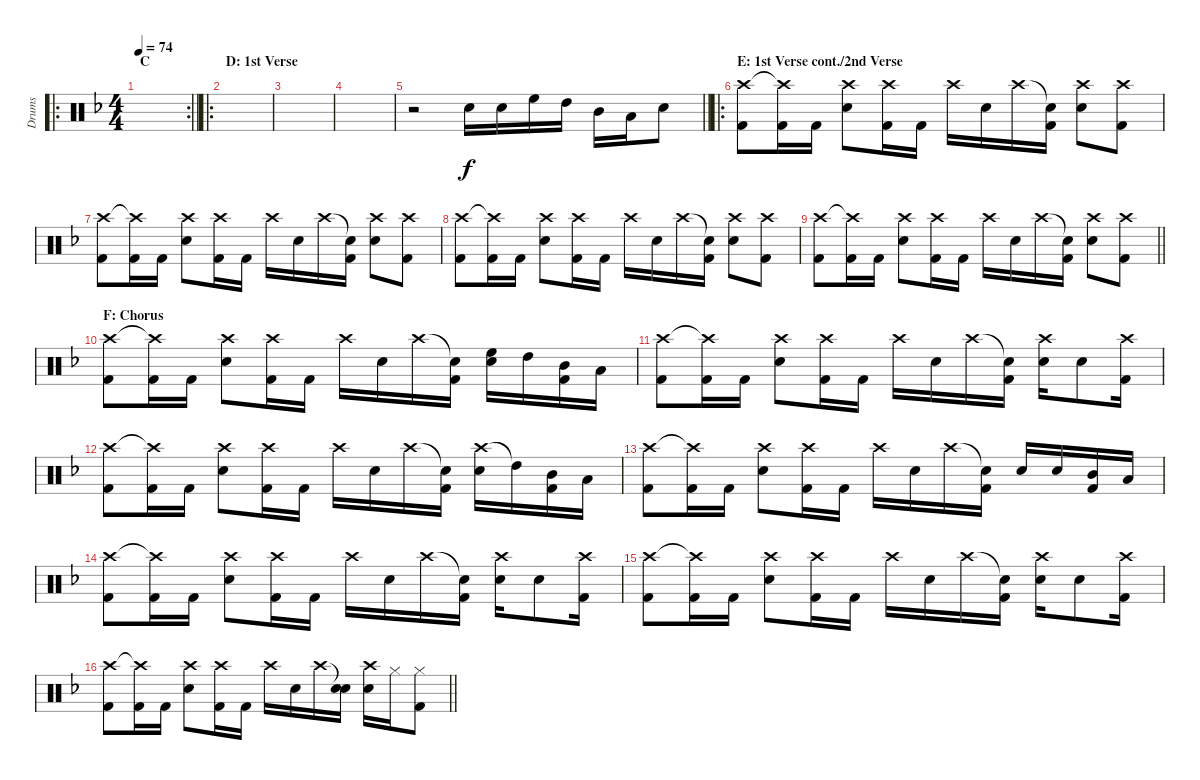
\track ("Drums" "Drums") {instrument percussion}
\staff {score}
\articulation defaults
\ro
\rc 2
\ts (4 4)
\section ("" "C")
\tempo 74
\clef neutral
\barLineRight lightlight
\ks dminor
|
\ro
\section ("" "D: 1st Verse")
|
|
|
\barLineRight lightlight
r.2 "Snare (hit) 2".16 "Snare (hit) 2".16 "High Floor Tom (hit)".16 "High Tom (hit)".16 "Mid Tom (hit)".16 "Low Tom (hit)".16 "Snare (hit) 2".8 |
\ro
\section ("" "E: 1st Verse cont./2nd Verse")
("Crash high (hit)" "Kick (hit) 2").8 ("Crash high (hit)"{t} "Kick (hit) 2").16 "Kick (hit) 2".16 ("Crash high (hit)" "Snare (hit) 2").8 ("Crash high (hit)" "Kick (hit) 2").16 "Kick (hit) 2".16 "Crash high (hit)".16 "Snare (hit) 2".16 "Crash high (hit)".16 ("Snare (hit)"{t} "Kick (hit) 2").16 ("Crash high (hit)" "Snare (hit) 2").8 ("Crash high (hit)" "Kick (hit) 2").8 |
("Crash high (hit)" "Kick (hit) 2").8 ("Crash high (hit)"{t} "Kick (hit) 2").16 "Kick (hit) 2".16 ("Crash high (hit)" "Snare (hit) 2").8 ("Crash high (hit)" "Kick (hit) 2").16 "Kick (hit) 2".16 "Crash high (hit)".16 "Snare (hit) 2".16 "Crash high (hit)".16 ("Snare (hit)"{t} "Kick (hit) 2").16 ("Crash high (hit)" "Snare (hit) 2").8 ("Crash high (hit)" "Kick (hit) 2").8 |
("Crash high (hit)" "Kick (hit) 2").8 ("Crash high (hit)"{t} "Kick (hit) 2").16 "Kick (hit) 2".16 ("Crash high (hit)" "Snare (hit) 2").8 ("Crash high (hit)" "Kick (hit) 2").16 "Kick (hit) 2".16 "Crash high (hit)".16 "Snare (hit) 2".16 "Crash high (hit)".16 ("Snare (hit)"{t} "Kick (hit) 2").16 ("Crash high (hit)" "Snare (hit) 2").8 ("Crash high (hit)" "Kick (hit) 2").8 |
\barLineRight lightlight
("Crash high (hit)" "Kick (hit) 2").8 ("Crash high (hit)"{t} "Kick (hit) 2").16 "Kick (hit) 2".16 ("Crash high (hit)" "Snare (hit) 2").8 ("Crash high (hit)" "Kick (hit) 2").16 "Kick (hit) 2".16 "Crash high (hit)".16 "Snare (hit) 2".16 "Crash high (hit)".16 ("Snare (hit)"{t} "Kick (hit) 2").16 ("Crash high (hit)" "Snare (hit) 2").8 ("Crash high (hit)" "Kick (hit) 2").8 |
\section ("" "F: Chorus")
("Crash high (hit)" "Kick (hit) 2").8 ("Crash high (hit)"{t} "Kick (hit) 2").16 "Kick (hit) 2".16 ("Crash high (hit)" "Snare (hit) 2").8 ("Crash high (hit)" "Kick (hit) 2").16 "Kick (hit) 2".16 "Crash high (hit)".16 "Snare (hit) 2".16 "Crash high (hit)".16 ("Snare (hit)"{t} "Kick (hit) 2").16 ("High Floor Tom (hit)" "Snare (hit) 2").16 "High Tom (hit)".16 ("Mid Tom (hit)" "Kick (hit) 2").16 "Low Tom (hit)".16 |
("Crash high (hit)" "Kick (hit) 2").8 ("Crash high (hit)"{t} "Kick (hit) 2").16 "Kick (hit) 2".16 ("Crash high (hit)" "Snare (hit) 2").8 ("Crash high (hit)" "Kick (hit) 2").16 "Kick (hit) 2".16 "Crash high (hit)".16 "Snare (hit) 2".16 "Crash high (hit)".16 ("Snare (hit)"{t} "Kick (hit) 2").16 ("Crash high (hit)" "Snare (hit) 2").16 "Snare (hit) 2".8 ("Crash high (hit)" "Kick (hit) 2").16 |
("Crash high (hit)" "Kick (hit) 2").8 ("Crash high (hit)"{t} "Kick (hit) 2").16 "Kick (hit) 2".16 ("Crash high (hit)" "Snare (hit) 2").8 ("Crash high (hit)" "Kick (hit) 2").16 "Kick (hit) 2".16 "Crash high (hit)".16 "Snare (hit) 2".16 "Crash high (hit)".16 ("Snare (hit)"{t} "Kick (hit) 2").16 ("Crash high (hit)" "Snare (hit) 2").16 "High Tom (hit)"{t}.16 ("Mid Tom (hit)" "Kick (hit) 2").16 "Low Tom (hit)".16 |
("Crash high (hit)" "Kick (hit) 2").8 ("Crash high (hit)"{t} "Kick (hit) 2").16 "Kick (hit) 2".16 ("Crash high (hit)" "Snare (hit) 2").8 ("Crash high (hit)" "Kick (hit) 2").16 "Kick (hit) 2".16 "Crash high (hit)".16 "Snare (hit) 2".16 "Crash high (hit)".16 ("Snare (hit)"{t} "Kick (hit) 2").16 "Snare (hit) 2".16 "Snare (hit) 2".16 ("Mid Tom (hit)" "Kick (hit) 2").16 "Low Tom (hit)".16 |
("Crash high (hit)" "Kick (hit) 2").8 ("Crash high (hit)"{t} "Kick (hit) 2").16 "Kick (hit) 2".16 ("Crash high (hit)" "Snare (hit) 2").8 ("Crash high (hit)" "Kick (hit) 2").16 "Kick (hit) 2".16 "Crash high (hit)".16 "Snare (hit) 2".16 "Crash high (hit)".16 ("Snare (hit)"{t} "Kick (hit) 2").16 ("Crash high (hit)" "Snare (hit) 2").16 "Snare (hit) 2".8 ("Crash high (hit)" "Kick (hit) 2").16 |
("Crash high (hit)" "Kick (hit) 2").8 ("Crash high (hit)"{t} "Kick (hit) 2").16 "Kick (hit) 2".16 ("Crash high (hit)" "Snare (hit) 2").8 ("Crash high (hit)" "Kick (hit) 2").16 "Kick (hit) 2".16 "Crash high (hit)".16 "Snare (hit) 2".16 "Crash high (hit)".16 ("Snare (hit)"{t} "Kick (hit) 2").16 ("Crash high (hit)" "Snare (hit) 2").16 "Snare (hit) 2".8 ("Crash high (hit)" "Kick (hit) 2").16 |
\barLineRight lightlight
("Crash high (hit)" "Kick (hit) 2").8 ("Crash high (hit)"{t} "Kick (hit) 2").16 "Kick (hit) 2".16 ("Crash high (hit)" "Snare (hit) 2").8 ("Crash high (hit)" "Kick (hit) 2").16 "Kick (hit) 2".16 "Crash high (hit)".16 "Snare (hit) 2".16 "Crash high (hit)".16 ("Snare (hit)"{t} "Snare (hit) 2").16 ("Crash high (hit)" "Snare (hit) 2").16 "Hi-Hat (closed)".16 ("Hi-Hat (closed)" "Kick (hit) 2").8
